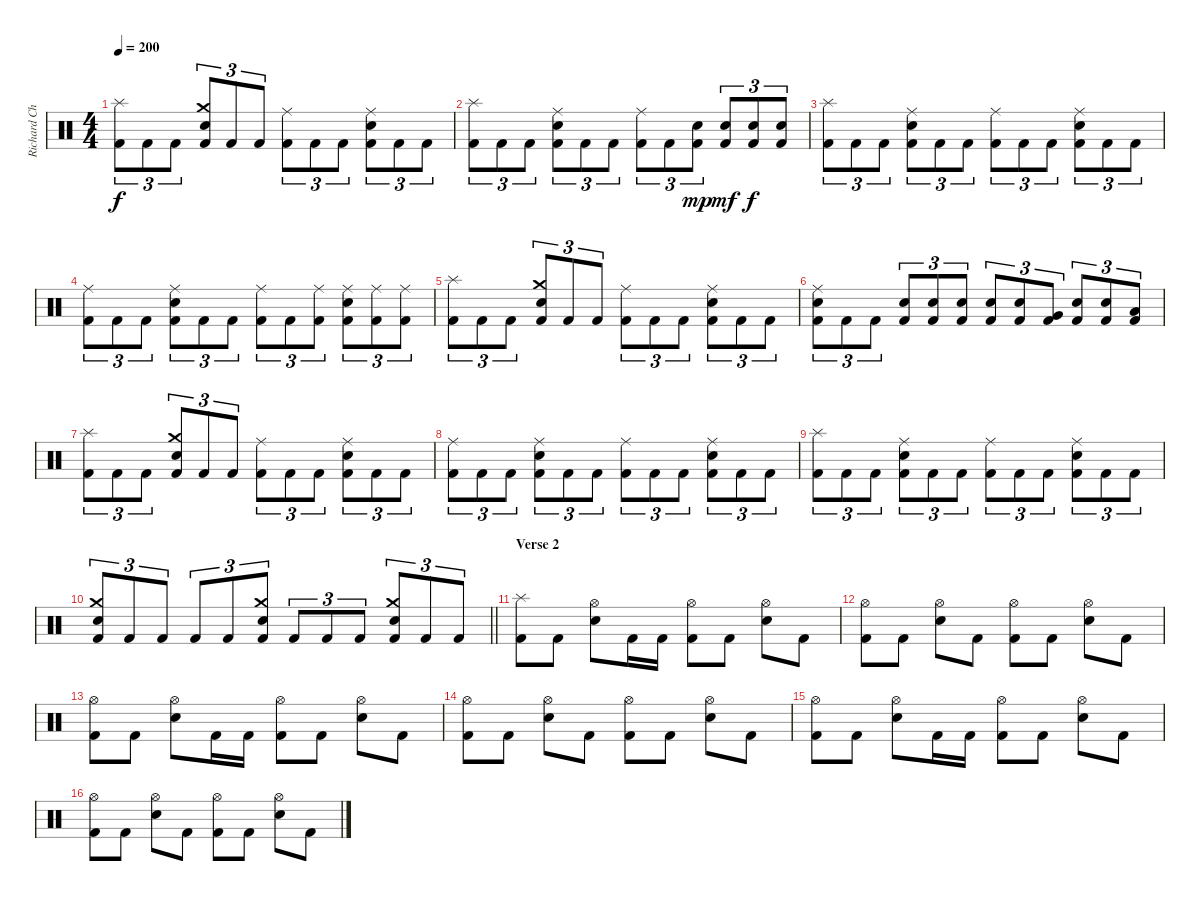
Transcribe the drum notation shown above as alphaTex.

\track ("Richard Christy" "Richard Ch") {instrument percussion}
\staff {score}
\articulation defaults
\ts (4 4)
\tempo 200
\clef neutral
\ks c
("Splash (hit)" "Kick (hit) 2").8{tu (3 2) dy f} "Kick (hit) 2".8{tu (3 2)} "Kick (hit) 2".8{tu (3 2)} ("Crash medium (hit)" "Electric Snare (hit)" "Kick (hit) 2").8{tu (3 2)} "Kick (hit) 2".8{tu (3 2)} "Kick (hit) 2".8{tu (3 2)} ("Ride (middle)" "Kick (hit) 2").8{tu (3 2)} "Kick (hit) 2".8{tu (3 2)} "Kick (hit) 2".8{tu (3 2)} ("Ride (middle)" "Electric Snare (hit)" "Kick (hit) 2").8{tu (3 2)} "Kick (hit) 2".8{tu (3 2)} "Kick (hit) 2".8{tu (3 2)} |
("Splash (hit)" "Kick (hit) 2").8{tu (3 2)} "Kick (hit) 2".8{tu (3 2)} "Kick (hit) 2".8{tu (3 2)} ("Ride (middle)" "Electric Snare (hit)" "Kick (hit) 2").8{tu (3 2)} "Kick (hit) 2".8{tu (3 2)} "Kick (hit) 2".8{tu (3 2)} ("Ride (middle)" "Kick (hit) 2").8{tu (3 2)} "Kick (hit) 2".8{tu (3 2)} ("Electric Snare (hit)" "Kick (hit) 2").8{tu (3 2) dy mp} ("Electric Snare (hit)" "Kick (hit) 2").8{tu (3 2) dy mf} ("Electric Snare (hit)" "Kick (hit) 2").8{tu (3 2) dy f} ("Electric Snare (hit)" "Kick (hit) 2").8{tu (3 2)} |
("Splash (hit)" "Kick (hit) 2").8{tu (3 2)} "Kick (hit) 2".8{tu (3 2)} "Kick (hit) 2".8{tu (3 2)} ("Ride (middle)" "Electric Snare (hit)" "Kick (hit) 2").8{tu (3 2)} "Kick (hit) 2".8{tu (3 2)} "Kick (hit) 2".8{tu (3 2)} ("Ride (middle)" "Kick (hit) 2").8{tu (3 2)} "Kick (hit) 2".8{tu (3 2)} "Kick (hit) 2".8{tu (3 2)} ("Ride (middle)" "Electric Snare (hit)" "Kick (hit) 2").8{tu (3 2)} "Kick (hit) 2".8{tu (3 2)} "Kick (hit) 2".8{tu (3 2)} |
("Ride (middle)" "Kick (hit) 2").8{tu (3 2)} "Kick (hit) 2".8{tu (3 2)} "Kick (hit) 2".8{tu (3 2)} ("Ride (middle)" "Electric Snare (hit)" "Kick (hit) 2").8{tu (3 2)} "Kick (hit) 2".8{tu (3 2)} "Kick (hit) 2".8{tu (3 2)} ("Ride (middle)" "Kick (hit) 2").8{tu (3 2)} "Kick (hit) 2".8{tu (3 2)} ("Ride (middle)" "Kick (hit) 2").8{tu (3 2)} ("Ride (middle)" "Electric Snare (hit)" "Kick (hit) 2").8{tu (3 2)} ("Ride (middle)" "Kick (hit) 2").8{tu (3 2)} ("Ride (middle)" "Kick (hit) 2").8{tu (3 2)} |
("Splash (hit)" "Kick (hit) 2").8{tu (3 2)} "Kick (hit) 2".8{tu (3 2)} "Kick (hit) 2".8{tu (3 2)} ("Crash medium (hit)" "Electric Snare (hit)" "Kick (hit) 2").8{tu (3 2)} "Kick (hit) 2".8{tu (3 2)} "Kick (hit) 2".8{tu (3 2)} ("Ride (middle)" "Kick (hit) 2").8{tu (3 2)} "Kick (hit) 2".8{tu (3 2)} "Kick (hit) 2".8{tu (3 2)} ("Ride (middle)" "Electric Snare (hit)" "Kick (hit) 2").8{tu (3 2)} "Kick (hit) 2".8{tu (3 2)} "Kick (hit) 2".8{tu (3 2)} |
("Ride (middle)" "Electric Snare (hit)" "Kick (hit) 2").8{tu (3 2)} "Kick (hit) 2".8{tu (3 2)} "Kick (hit) 2".8{tu (3 2)} ("Electric Snare (hit)" "Kick (hit) 2").8{tu (3 2)} ("Electric Snare (hit)" "Kick (hit) 2").8{tu (3 2)} ("Electric Snare (hit)" "Kick (hit) 2").8{tu (3 2)} ("Electric Snare (hit)" "Kick (hit) 2").8{tu (3 2)} ("Electric Snare (hit)" "Kick (hit) 2").8{tu (3 2)} ("Very Low Tom (hit)" "Kick (hit) 2").8{tu (3 2)} ("Electric Snare (hit)" "Kick (hit) 2").8{tu (3 2)} ("Electric Snare (hit)" "Kick (hit) 2").8{tu (3 2)} ("Low Floor Tom (hit)" "Kick (hit) 2").8{tu (3 2)} |
("Splash (hit)" "Kick (hit) 2").8{tu (3 2)} "Kick (hit) 2".8{tu (3 2)} "Kick (hit) 2".8{tu (3 2)} ("Crash medium (hit)" "Electric Snare (hit)" "Kick (hit) 2").8{tu (3 2)} "Kick (hit) 2".8{tu (3 2)} "Kick (hit) 2".8{tu (3 2)} ("Ride (middle)" "Kick (hit) 2").8{tu (3 2)} "Kick (hit) 2".8{tu (3 2)} "Kick (hit) 2".8{tu (3 2)} ("Ride (middle)" "Electric Snare (hit)" "Kick (hit) 2").8{tu (3 2)} "Kick (hit) 2".8{tu (3 2)} "Kick (hit) 2".8{tu (3 2)} |
("Ride (middle)" "Kick (hit) 2").8{tu (3 2)} "Kick (hit) 2".8{tu (3 2)} "Kick (hit) 2".8{tu (3 2)} ("Ride (middle)" "Electric Snare (hit)" "Kick (hit) 2").8{tu (3 2)} "Kick (hit) 2".8{tu (3 2)} "Kick (hit) 2".8{tu (3 2)} ("Ride (middle)" "Kick (hit) 2").8{tu (3 2)} "Kick (hit) 2".8{tu (3 2)} "Kick (hit) 2".8{tu (3 2)} ("Ride (middle)" "Electric Snare (hit)" "Kick (hit) 2").8{tu (3 2)} "Kick (hit) 2".8{tu (3 2)} "Kick (hit) 2".8{tu (3 2)} |
("Splash (hit)" "Kick (hit) 2").8{tu (3 2)} "Kick (hit) 2".8{tu (3 2)} "Kick (hit) 2".8{tu (3 2)} ("Ride (middle)" "Electric Snare (hit)" "Kick (hit) 2").8{tu (3 2)} "Kick (hit) 2".8{tu (3 2)} "Kick (hit) 2".8{tu (3 2)} ("Ride (middle)" "Kick (hit) 2").8{tu (3 2)} "Kick (hit) 2".8{tu (3 2)} "Kick (hit) 2".8{tu (3 2)} ("Ride (middle)" "Electric Snare (hit)" "Kick (hit) 2").8{tu (3 2)} "Kick (hit) 2".8{tu (3 2)} "Kick (hit) 2".8{tu (3 2)} |
\barLineRight lightlight
("Crash medium (hit)" "Electric Snare (hit)" "Kick (hit) 2").8{tu (3 2)} "Kick (hit) 2".8{tu (3 2)} "Kick (hit) 2".8{tu (3 2)} "Kick (hit) 2".8{tu (3 2)} "Kick (hit) 2".8{tu (3 2)} ("Crash medium (hit)" "Electric Snare (hit)" "Kick (hit) 2").8{tu (3 2)} "Kick (hit) 2".8{tu (3 2)} "Kick (hit) 2".8{tu (3 2)} "Kick (hit) 2".8{tu (3 2)} ("Crash medium (hit)" "Electric Snare (hit)" "Kick (hit) 2").8{tu (3 2)} "Kick (hit) 2".8{tu (3 2)} "Kick (hit) 2".8{tu (3 2)} |
\section ("" "Verse 2")
("Splash (hit)" "Kick (hit) 2").8 "Kick (hit) 2".8 ("Hi-Hat (open)" "Electric Snare (hit)").8 "Kick (hit) 2".16 "Kick (hit) 2".16 ("Hi-Hat (open)" "Kick (hit) 2").8 "Kick (hit) 2".8 ("Hi-Hat (open)" "Electric Snare (hit)").8 "Kick (hit) 2".8 |
("Hi-Hat (open)" "Kick (hit) 2").8 "Kick (hit) 2".8 ("Hi-Hat (open)" "Electric Snare (hit)").8 "Kick (hit) 2".8 ("Hi-Hat (open)" "Kick (hit) 2").8 "Kick (hit) 2".8 ("Hi-Hat (open)" "Electric Snare (hit)").8 "Kick (hit) 2".8 |
("Hi-Hat (open)" "Kick (hit) 2").8 "Kick (hit) 2".8 ("Hi-Hat (open)" "Electric Snare (hit)").8 "Kick (hit) 2".16 "Kick (hit) 2".16 ("Hi-Hat (open)" "Kick (hit) 2").8 "Kick (hit) 2".8 ("Hi-Hat (open)" "Electric Snare (hit)").8 "Kick (hit) 2".8 |
("Hi-Hat (open)" "Kick (hit) 2").8 "Kick (hit) 2".8 ("Hi-Hat (open)" "Electric Snare (hit)").8 "Kick (hit) 2".8 ("Hi-Hat (open)" "Kick (hit) 2").8 "Kick (hit) 2".8 ("Hi-Hat (open)" "Electric Snare (hit)").8 "Kick (hit) 2".8 |
("Hi-Hat (open)" "Kick (hit) 2").8 "Kick (hit) 2".8 ("Hi-Hat (open)" "Electric Snare (hit)").8 "Kick (hit) 2".16 "Kick (hit) 2".16 ("Hi-Hat (open)" "Kick (hit) 2").8 "Kick (hit) 2".8 ("Hi-Hat (open)" "Electric Snare (hit)").8 "Kick (hit) 2".8 |
("Hi-Hat (open)" "Kick (hit) 2").8 "Kick (hit) 2".8 ("Hi-Hat (open)" "Electric Snare (hit)").8 "Kick (hit) 2".8 ("Hi-Hat (open)" "Kick (hit) 2").8 "Kick (hit) 2".8 ("Hi-Hat (open)" "Electric Snare (hit)").8 "Kick (hit) 2".8
